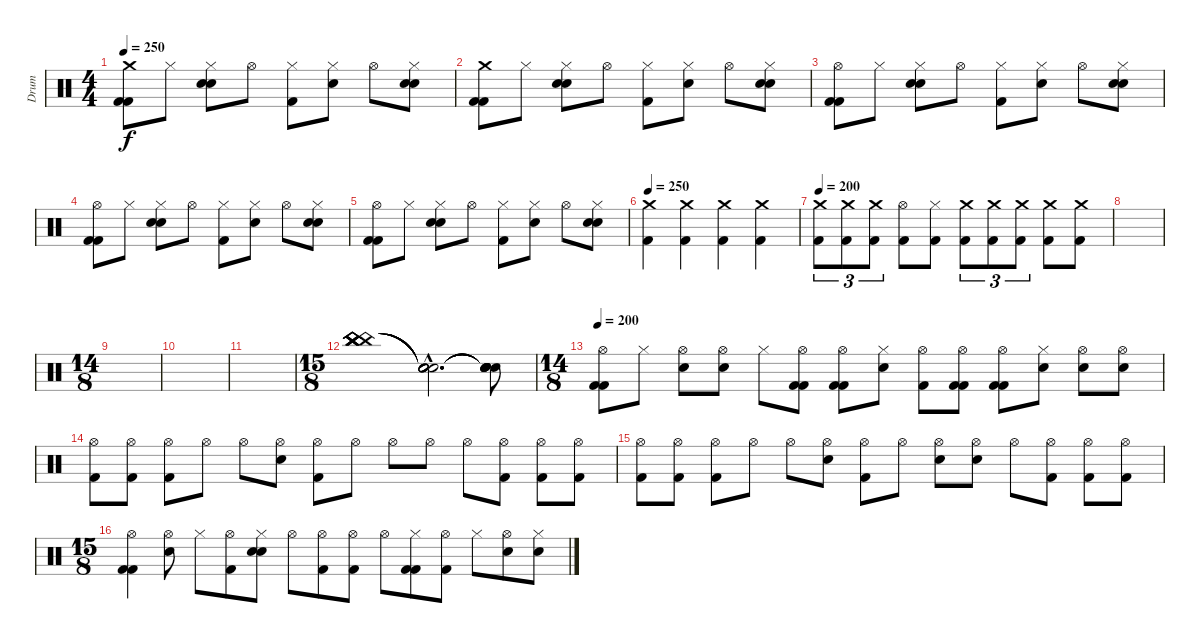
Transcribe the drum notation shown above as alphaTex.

\track ("Drum" "Drum") {instrument percussion}
\staff {score}
\articulation defaults
\ts (4 4)
\tempo 250
\clef neutral
\ks c
("Crash medium (hit)" "Kick (hit) 2" "Kick (hit) 2").8{dy f} "Hi-Hat (closed)".8 ("Hi-Hat (closed)" "Snare (hit) 2" "Snare (hit) 2").8 "Hi-Hat (open)".8 ("Hi-Hat (closed)" "Kick (hit) 2").8 ("Hi-Hat (closed)" "Snare (hit) 2").8 "Hi-Hat (open)".8 ("Hi-Hat (closed)" "Snare (hit) 2" "Snare (hit) 2").8 |
("Crash medium (hit)" "Kick (hit) 2" "Kick (hit) 2").8 "Hi-Hat (closed)".8 ("Hi-Hat (closed)" "Snare (hit) 2" "Snare (hit) 2").8 "Hi-Hat (open)".8 ("Hi-Hat (closed)" "Kick (hit) 2").8 ("Hi-Hat (closed)" "Snare (hit) 2").8 "Hi-Hat (open)".8 ("Hi-Hat (closed)" "Snare (hit) 2" "Snare (hit) 2").8 |
("Hi-Hat (open)" "Kick (hit) 2" "Kick (hit) 2").8 "Hi-Hat (closed)".8 ("Hi-Hat (closed)" "Snare (hit) 2" "Snare (hit) 2").8 "Hi-Hat (open)".8 ("Hi-Hat (closed)" "Kick (hit) 2").8 ("Hi-Hat (closed)" "Snare (hit) 2").8 "Hi-Hat (open)".8 ("Hi-Hat (closed)" "Snare (hit) 2" "Snare (hit) 2").8 |
("Hi-Hat (open)" "Kick (hit) 2" "Kick (hit) 2").8 "Hi-Hat (closed)".8 ("Hi-Hat (closed)" "Snare (hit) 2" "Snare (hit) 2").8 "Hi-Hat (open)".8 ("Hi-Hat (closed)" "Kick (hit) 2").8 ("Hi-Hat (closed)" "Snare (hit) 2").8 "Hi-Hat (open)".8 ("Hi-Hat (closed)" "Snare (hit) 2" "Snare (hit) 2").8 |
("Hi-Hat (open)" "Kick (hit) 2" "Kick (hit) 2").8 "Hi-Hat (closed)".8 ("Hi-Hat (closed)" "Snare (hit) 2" "Snare (hit) 2").8 "Hi-Hat (open)".8 ("Hi-Hat (closed)" "Kick (hit) 2").8 ("Hi-Hat (closed)" "Snare (hit) 2").8 "Hi-Hat (open)".8 ("Hi-Hat (closed)" "Snare (hit) 2" "Snare (hit) 2").8 |
\tempo 250
("Crash medium (hit)" "Kick (hit) 2").4 ("Crash medium (hit)" "Kick (hit) 2").4 ("Crash medium (hit)" "Kick (hit) 2").4 ("Crash medium (hit)" "Kick (hit) 2").4 |
\tempo 200
("Crash medium (hit)" "Kick (hit) 2").8{tu (3 2)} ("Crash medium (hit)" "Kick (hit) 2").8{tu (3 2)} ("Crash medium (hit)" "Kick (hit) 2").8{tu (3 2)} ("Hi-Hat (open)" "Kick (hit) 2").8 ("Hi-Hat (closed)" "Kick (hit) 2").8 ("Crash medium (hit)" "Kick (hit) 2").8{tu (3 2)} ("Crash medium (hit)" "Kick (hit) 2").8{tu (3 2)} ("Crash medium (hit)" "Kick (hit) 2").8{tu (3 2)} ("Crash medium (hit)" "Kick (hit) 2").8 ("Crash medium (hit)" "Kick (hit) 2").8 |
|
\ts (14 8)
|
|
|
\ts (15 8)
("China (hit)" "China (hit)" "China (hit)" "China (hit)" "China (hit)" "China (hit)").1 ("Snare (hit)"{hac t} "Snare (hit)"{hac t} "Snare (hit)"{hac t} "Snare (hit)"{hac t} "Snare (hit)"{hac t} "Snare (hit)"{hac t}).2{d} ("Snare (hit)"{t} "Snare (hit)"{t} "Snare (hit)"{t} "Snare (hit)"{t} "Snare (hit)"{t} "Snare (hit)"{t}).8 |
\ts (14 8)
\tempo 200
("Hi-Hat (open)" "Kick (hit) 2" "Kick (hit) 2").8 "Hi-Hat (closed)".8 ("Hi-Hat (open)" "Snare (hit) 2").8 ("Hi-Hat (open)" "Snare (hit) 2").8 "Hi-Hat (closed)".8 ("Hi-Hat (open)" "Kick (hit) 2" "Kick (hit) 2").8 ("Hi-Hat (open)" "Kick (hit) 2" "Kick (hit) 2").8 ("Hi-Hat (closed)" "Snare (hit) 2").8 ("Hi-Hat (open)" "Kick (hit) 2").8 ("Hi-Hat (open)" "Kick (hit) 2" "Kick (hit) 2").8 ("Hi-Hat (open)" "Kick (hit) 2" "Kick (hit) 2").8 ("Hi-Hat (closed)" "Snare (hit) 2").8 ("Hi-Hat (open)" "Snare (hit) 2").8 ("Hi-Hat (open)" "Snare (hit) 2").8 |
("Hi-Hat (open)" "Kick (hit) 2").8 ("Hi-Hat (open)" "Kick (hit) 2").8 ("Hi-Hat (open)" "Kick (hit) 2").8 "Hi-Hat (open)".8 "Hi-Hat (open)".8 ("Hi-Hat (open)" "Snare (hit) 2").8 ("Hi-Hat (open)" "Kick (hit) 2").8 "Hi-Hat (open)".8 "Hi-Hat (open)".8 "Hi-Hat (open)".8 "Hi-Hat (open)".8 ("Hi-Hat (open)" "Kick (hit) 2").8 ("Hi-Hat (open)" "Kick (hit) 2").8 ("Hi-Hat (open)" "Kick (hit) 2").8 |
("Hi-Hat (open)" "Kick (hit) 2").8 ("Hi-Hat (open)" "Kick (hit) 2").8 ("Hi-Hat (open)" "Kick (hit) 2").8 "Hi-Hat (open)".8 "Hi-Hat (open)".8 ("Hi-Hat (open)" "Snare (hit) 2").8 ("Hi-Hat (open)" "Kick (hit) 2").8 "Hi-Hat (open)".8 ("Hi-Hat (open)" "Snare (hit) 2").8 ("Hi-Hat (open)" "Snare (hit) 2").8 "Hi-Hat (open)".8 ("Hi-Hat (open)" "Kick (hit) 2").8 ("Hi-Hat (open)" "Kick (hit) 2").8 ("Hi-Hat (open)" "Kick (hit) 2").8 |
\ts (15 8)
("Hi-Hat (open)" "Kick (hit) 2" "Kick (hit) 2").4 ("Hi-Hat (open)" "Snare (hit) 2").8 "Hi-Hat (closed)".8 ("Hi-Hat (open)" "Kick (hit) 2").8 ("Hi-Hat (closed)" "Snare (hit) 2" "Snare (hit) 2").8 "Hi-Hat (open)".8 ("Hi-Hat (open)" "Kick (hit) 2").8 ("Hi-Hat (open)" "Kick (hit) 2").8 "Hi-Hat (open)".8 ("Hi-Hat (closed)" "Kick (hit) 2" "Kick (hit) 2").8 ("Hi-Hat (open)" "Kick (hit) 2").8 "Hi-Hat (closed)".8 ("Hi-Hat (open)" "Snare (hit) 2").8 ("Hi-Hat (closed)" "Snare (hit) 2").8
